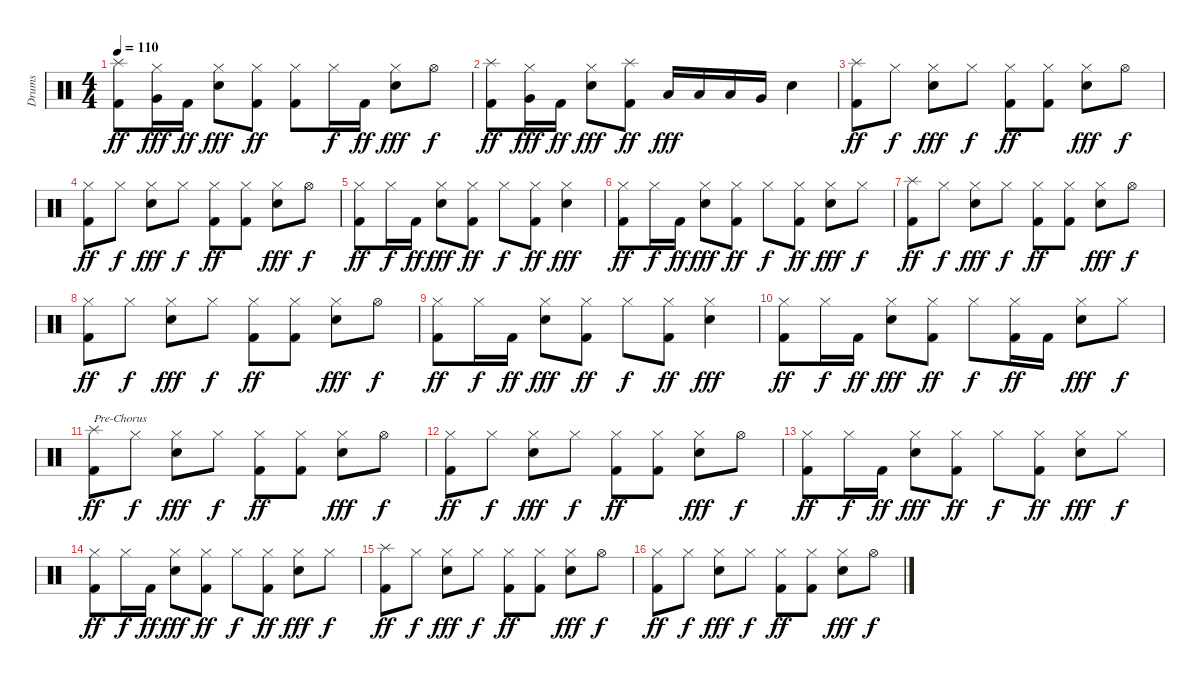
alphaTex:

\track ("Drums" "Drums") {instrument percussion}
\staff {score}
\articulation defaults
\ts (4 4)
\tempo 110
\clef neutral
\ks c
("Splash (hit)" "Kick (hit) 2").8{dy ff} ("Hi-Hat (closed)" "Very Low Tom (hit)").16{dy fff} "Kick (hit) 2".16{dy ff} ("Hi-Hat (closed)" "Electric Snare (hit)").8{dy fff} ("Hi-Hat (closed)" "Kick (hit) 2").8{dy ff} ("Hi-Hat (closed)" "Kick (hit) 2").8 "Hi-Hat (closed)".16{dy f} "Kick (hit) 2".16{dy ff} ("Hi-Hat (closed)" "Electric Snare (hit)").8{dy fff} "Hi-Hat (open)".8{dy f} |
("Splash (hit)" "Kick (hit) 2").8{dy ff} ("Hi-Hat (closed)" "Very Low Tom (hit)").16{dy fff} "Kick (hit) 2".16{dy ff} ("Hi-Hat (closed)" "Electric Snare (hit)").8{dy fff} ("Splash (hit)" "Kick (hit) 2").8{dy ff} "Low Tom (hit)".16{dy fff} "Low Tom (hit)".16 "Low Tom (hit)".16 "Very Low Tom (hit)".16 "Electric Snare (hit)".4 |
("Splash (hit)" "Kick (hit) 2").8{dy ff} "Hi-Hat (closed)".8{dy f} ("Hi-Hat (closed)" "Electric Snare (hit)").8{dy fff} "Hi-Hat (closed)".8{dy f} ("Hi-Hat (closed)" "Kick (hit) 2").8{dy ff} ("Hi-Hat (closed)" "Kick (hit) 2").8 ("Hi-Hat (closed)" "Electric Snare (hit)").8{dy fff} "Hi-Hat (open)".8{dy f} |
("Hi-Hat (closed)" "Kick (hit) 2").8{dy ff} "Hi-Hat (closed)".8{dy f} ("Hi-Hat (closed)" "Electric Snare (hit)").8{dy fff} "Hi-Hat (closed)".8{dy f} ("Hi-Hat (closed)" "Kick (hit) 2").8{dy ff} ("Hi-Hat (closed)" "Kick (hit) 2").8 ("Hi-Hat (closed)" "Electric Snare (hit)").8{dy fff} "Hi-Hat (open)".8{dy f} |
("Hi-Hat (closed)" "Kick (hit) 2").8{dy ff} "Hi-Hat (closed)".16{dy f} "Kick (hit) 2".16{dy ff} ("Hi-Hat (closed)" "Electric Snare (hit)").8{dy fff} ("Hi-Hat (closed)" "Kick (hit) 2").8{dy ff} "Hi-Hat (closed)".8{dy f} ("Hi-Hat (closed)" "Kick (hit) 2").8{dy ff} ("Hi-Hat (closed)" "Electric Snare (hit)").4{dy fff} |
("Hi-Hat (closed)" "Kick (hit) 2").8{dy ff} "Hi-Hat (closed)".16{dy f} "Kick (hit) 2".16{dy ff} ("Hi-Hat (closed)" "Electric Snare (hit)").8{dy fff} ("Hi-Hat (closed)" "Kick (hit) 2").8{dy ff} "Hi-Hat (closed)".8{dy f} ("Hi-Hat (closed)" "Kick (hit) 2").8{dy ff} ("Hi-Hat (closed)" "Electric Snare (hit)").8{dy fff} "Hi-Hat (closed)".8{dy f} |
("Splash (hit)" "Kick (hit) 2").8{dy ff} "Hi-Hat (closed)".8{dy f} ("Hi-Hat (closed)" "Electric Snare (hit)").8{dy fff} "Hi-Hat (closed)".8{dy f} ("Hi-Hat (closed)" "Kick (hit) 2").8{dy ff} ("Hi-Hat (closed)" "Kick (hit) 2").8 ("Hi-Hat (closed)" "Electric Snare (hit)").8{dy fff} "Hi-Hat (open)".8{dy f} |
("Hi-Hat (closed)" "Kick (hit) 2").8{dy ff} "Hi-Hat (closed)".8{dy f} ("Hi-Hat (closed)" "Electric Snare (hit)").8{dy fff} "Hi-Hat (closed)".8{dy f} ("Hi-Hat (closed)" "Kick (hit) 2").8{dy ff} ("Hi-Hat (closed)" "Kick (hit) 2").8 ("Hi-Hat (closed)" "Electric Snare (hit)").8{dy fff} "Hi-Hat (open)".8{dy f} |
("Hi-Hat (closed)" "Kick (hit) 2").8{dy ff} "Hi-Hat (closed)".16{dy f} "Kick (hit) 2".16{dy ff} ("Hi-Hat (closed)" "Electric Snare (hit)").8{dy fff} ("Hi-Hat (closed)" "Kick (hit) 2").8{dy ff} "Hi-Hat (closed)".8{dy f} ("Hi-Hat (closed)" "Kick (hit) 2").8{dy ff} ("Hi-Hat (closed)" "Electric Snare (hit)").4{dy fff} |
("Hi-Hat (closed)" "Kick (hit) 2").8{dy ff} "Hi-Hat (closed)".16{dy f} "Kick (hit) 2".16{dy ff} ("Hi-Hat (closed)" "Electric Snare (hit)").8{dy fff} ("Hi-Hat (closed)" "Kick (hit) 2").8{dy ff} "Hi-Hat (closed)".8{dy f} ("Hi-Hat (closed)" "Kick (hit) 2").16{dy ff} "Kick (hit) 2".16 ("Hi-Hat (closed)" "Electric Snare (hit)").8{dy fff} "Hi-Hat (closed)".8{dy f} |
("Splash (hit)" "Kick (hit) 2").8{txt "Pre-Chorus" dy ff} "Hi-Hat (closed)".8{dy f} ("Hi-Hat (closed)" "Electric Snare (hit)").8{dy fff} "Hi-Hat (closed)".8{dy f} ("Hi-Hat (closed)" "Kick (hit) 2").8{dy ff} ("Hi-Hat (closed)" "Kick (hit) 2").8 ("Hi-Hat (closed)" "Electric Snare (hit)").8{dy fff} "Hi-Hat (open)".8{dy f} |
("Hi-Hat (closed)" "Kick (hit) 2").8{dy ff} "Hi-Hat (closed)".8{dy f} ("Hi-Hat (closed)" "Electric Snare (hit)").8{dy fff} "Hi-Hat (closed)".8{dy f} ("Hi-Hat (closed)" "Kick (hit) 2").8{dy ff} ("Hi-Hat (closed)" "Kick (hit) 2").8 ("Hi-Hat (closed)" "Electric Snare (hit)").8{dy fff} "Hi-Hat (open)".8{dy f} |
("Hi-Hat (closed)" "Kick (hit) 2").8{dy ff} "Hi-Hat (closed)".16{dy f} "Kick (hit) 2".16{dy ff} ("Hi-Hat (closed)" "Electric Snare (hit)").8{dy fff} ("Hi-Hat (closed)" "Kick (hit) 2").8{dy ff} "Hi-Hat (closed)".8{dy f} ("Hi-Hat (closed)" "Kick (hit) 2").8{dy ff} ("Hi-Hat (closed)" "Electric Snare (hit)").8{dy fff} "Hi-Hat (closed)".8{dy f} |
("Hi-Hat (closed)" "Kick (hit) 2").8{dy ff} "Hi-Hat (closed)".16{dy f} "Kick (hit) 2".16{dy ff} ("Hi-Hat (closed)" "Electric Snare (hit)").8{dy fff} ("Hi-Hat (closed)" "Kick (hit) 2").8{dy ff} "Hi-Hat (closed)".8{dy f} ("Hi-Hat (closed)" "Kick (hit) 2").8{dy ff} ("Hi-Hat (closed)" "Electric Snare (hit)").8{dy fff} "Hi-Hat (closed)".8{dy f} |
("Splash (hit)" "Kick (hit) 2").8{dy ff} "Hi-Hat (closed)".8{dy f} ("Hi-Hat (closed)" "Electric Snare (hit)").8{dy fff} "Hi-Hat (closed)".8{dy f} ("Hi-Hat (closed)" "Kick (hit) 2").8{dy ff} ("Hi-Hat (closed)" "Kick (hit) 2").8 ("Hi-Hat (closed)" "Electric Snare (hit)").8{dy fff} "Hi-Hat (open)".8{dy f} |
("Hi-Hat (closed)" "Kick (hit) 2").8{dy ff} "Hi-Hat (closed)".8{dy f} ("Hi-Hat (closed)" "Electric Snare (hit)").8{dy fff} "Hi-Hat (closed)".8{dy f} ("Hi-Hat (closed)" "Kick (hit) 2").8{dy ff} ("Hi-Hat (closed)" "Kick (hit) 2").8 ("Hi-Hat (closed)" "Electric Snare (hit)").8{dy fff} "Hi-Hat (open)".8{dy f}
